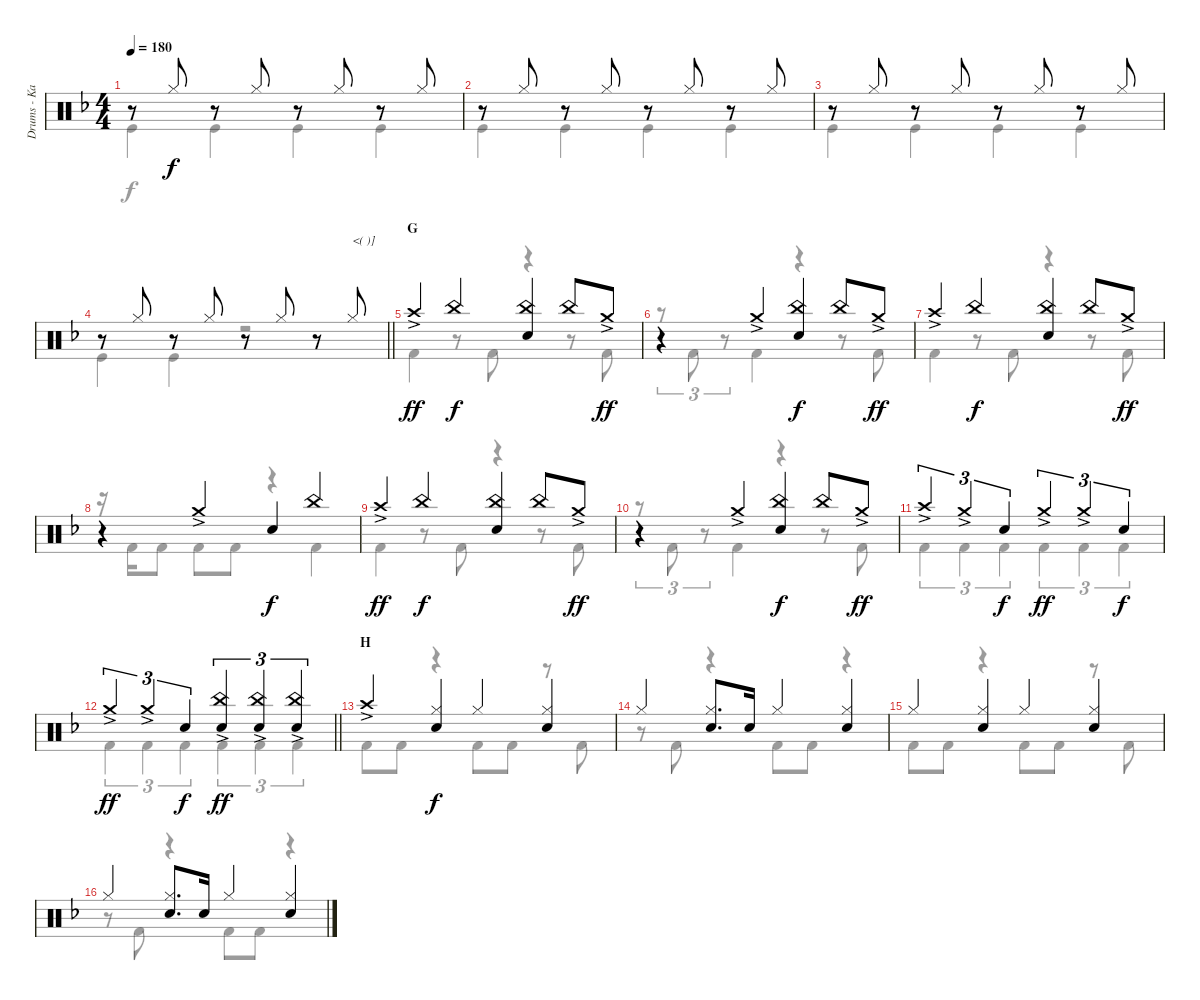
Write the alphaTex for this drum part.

\track ("Drums - Kai" "Drums - Ka") {instrument percussion}
\staff {score}
\articulation defaults
\voice
\ts (4 4)
\tempo 180
\clef neutral
\ks f
r.8{dy f} "Hi-Hat (closed)".8 r.8 "Hi-Hat (closed)".8 r.8 "Hi-Hat (closed)".8 r.8 "Hi-Hat (closed)".8 |
r.8 "Hi-Hat (closed)".8 r.8 "Hi-Hat (closed)".8 r.8 "Hi-Hat (closed)".8 r.8 "Hi-Hat (closed)".8 |
r.8 "Hi-Hat (closed)".8 r.8 "Hi-Hat (closed)".8 r.8 "Hi-Hat (closed)".8 r.8 "Hi-Hat (closed)".8 |
\barLineRight lightlight
r.8 "Hi-Hat (closed)".8 r.8 "Hi-Hat (closed)".8 r.8 "Hi-Hat (closed)".8 r.8 "Hi-Hat (closed)".8{txt "<( )]"} |
\section ("" "G")
"Crash high (hit)"{ac}.4{dy ff} "China (hit)".4{dy f} ("China (hit)" "Snare (hit) 2").4 "China (hit)".8 "Crash medium (hit)"{ac}.8{dy ff} |
r.4 "Crash medium (hit)"{ac}.4 ("China (hit)" "Snare (hit) 2").4{dy f} "China (hit)".8 "Crash medium (hit)"{ac}.8{dy ff} |
"Crash high (hit)"{ac}.4 "China (hit)".4{dy f} ("China (hit)" "Snare (hit) 2").4 "China (hit)".8 "Crash medium (hit)"{ac}.8{dy ff} |
r.4 "Crash medium (hit)"{ac}.4 "Snare (hit) 2".4{dy f} "China (hit)".4 |
"Crash high (hit)"{ac}.4{dy ff} "China (hit)".4{dy f} ("China (hit)" "Snare (hit) 2").4 "China (hit)".8 "Crash medium (hit)"{ac}.8{dy ff} |
r.4 "Crash medium (hit)"{ac}.4 ("China (hit)" "Snare (hit) 2").4{dy f} "China (hit)".8 "Crash medium (hit)"{ac}.8{dy ff} |
"Crash high (hit)"{ac}.4{tu (3 2)} "Crash medium (hit)"{ac}.4{tu (3 2)} "Snare (hit) 2".4{tu (3 2) dy f} "Crash medium (hit)"{ac}.4{tu (3 2) dy ff} "Crash medium (hit)"{ac}.4{tu (3 2)} "Snare (hit) 2".4{tu (3 2) dy f} |
\barLineRight lightlight "Crash medium (hit)"{ac}.4{tu (3 2) dy ff} "Crash medium (hit)"{ac}.4{tu (3 2)} "Snare (hit) 2".4{tu (3 2) dy f}
("China (hit)"{ac} "Snare (hit) 2").4{tu (3 2) dy ff} ("China (hit)"{ac} "Snare (hit) 2").4{tu (3 2)} ("China (hit)"{ac} "Snare (hit) 2").4{tu (3 2)} |
\section ("" "H")
"Crash high (hit)"{ac}.4 ("Hi-Hat (closed)" "Snare (hit) 2").4{dy f} "Hi-Hat (closed)".4 ("Hi-Hat (closed)" "Snare (hit) 2").4 |
"Hi-Hat (closed)".4 ("Hi-Hat (closed)" "Snare (hit) 2").8{d} "Snare (hit) 2".16 "Hi-Hat (closed)".4 ("Hi-Hat (closed)" "Snare (hit) 2").4 |
"Hi-Hat (closed)".4 ("Hi-Hat (closed)" "Snare (hit) 2").4 "Hi-Hat (closed)".4 ("Hi-Hat (closed)" "Snare (hit) 2").4 |
"Hi-Hat (closed)".4 ("Hi-Hat (closed)" "Snare (hit) 2").8{d} "Snare (hit) 2".16 "Hi-Hat (closed)".4 ("Hi-Hat (closed)" "Snare (hit) 2").4
\voice
\clef neutral
\ottava regular
\simile none
\ks f "Kick (hit)".4{dy f} "Kick (hit)".4 "Kick (hit)".4 "Kick (hit)".4
|
"Kick (hit)".4 "Kick (hit)".4 "Kick (hit)".4 "Kick (hit)".4 |
"Kick (hit)".4 "Kick (hit)".4 "Kick (hit)".4 "Kick (hit)".4 |
\barLineRight lightlight "Kick (hit)".4 "Kick (hit)".4
r.2 |
"Kick (hit) 2".4 r.8 "Kick (hit) 2".8 r.4 r.8 "Kick (hit) 2".8 |
r.8{tu (3 2)} "Kick (hit) 2".8{tu (3 2)} r.8{tu (3 2)} "Kick (hit) 2".4 r.4 r.8 "Kick (hit) 2".8 |
"Kick (hit) 2".4 r.8 "Kick (hit) 2".8 r.4 r.8 "Kick (hit) 2".8 |
r.16 "Kick (hit) 2".16 "Kick (hit) 2".8 "Kick (hit) 2".8 "Kick (hit) 2".8 r.4 "Kick (hit) 2".4 |
"Kick (hit) 2".4 r.8 "Kick (hit) 2".8 r.4 r.8 "Kick (hit) 2".8 |
r.8{tu (3 2)} "Kick (hit) 2".8{tu (3 2)} r.8{tu (3 2)} "Kick (hit) 2".4 r.4 r.8 "Kick (hit) 2".8 |
"Kick (hit) 2".4{tu (3 2)} "Kick (hit) 2".4{tu (3 2)} "Kick (hit) 2".4{tu (3 2)} "Kick (hit) 2".4{tu (3 2)} "Kick (hit) 2".4{tu (3 2)} "Kick (hit) 2".4{tu (3 2)} |
\barLineRight lightlight "Kick (hit) 2".4{tu (3 2)} "Kick (hit) 2".4{tu (3 2)} "Kick (hit) 2".4{tu (3 2)} "Kick (hit) 2".4{tu (3 2)} "Kick (hit) 2".4{tu (3 2)} "Kick (hit) 2".4{tu (3 2)}
|
"Kick (hit) 2".8 "Kick (hit) 2".8 r.4 "Kick (hit) 2".8 "Kick (hit) 2".8 r.8 "Kick (hit) 2".8 |
r.8 "Kick (hit) 2".8 r.4 "Kick (hit) 2".8 "Kick (hit) 2".8 r.4 |
"Kick (hit) 2".8 "Kick (hit) 2".8 r.4 "Kick (hit) 2".8 "Kick (hit) 2".8 r.8 "Kick (hit) 2".8 |
r.8 "Kick (hit) 2".8 r.4 "Kick (hit) 2".8 "Kick (hit) 2".8 r.4
